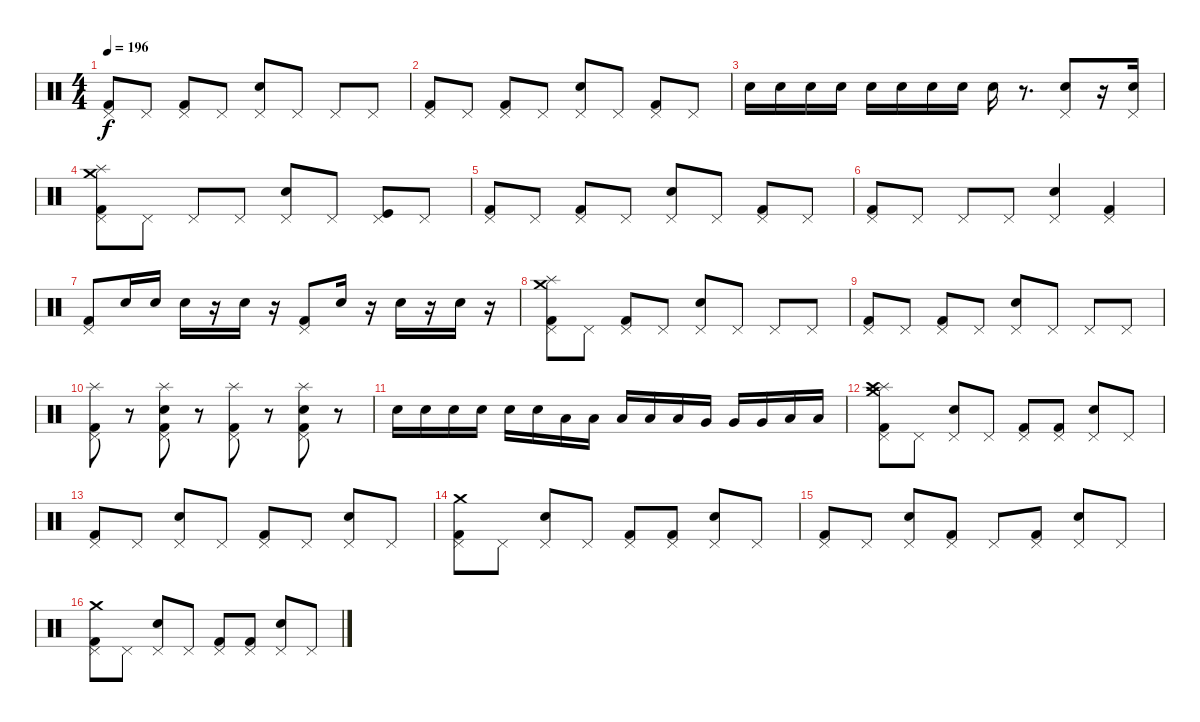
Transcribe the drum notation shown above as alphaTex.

\track "" {instrument percussion}
\staff {score}
\articulation defaults
\ts (4 4)
\tempo 196
\clef neutral
\ks c
("Pedal Hi-Hat (hit)" "Kick (hit) 2").8{dy f} "Pedal Hi-Hat (hit)".8 ("Pedal Hi-Hat (hit)" "Kick (hit) 2").8 "Pedal Hi-Hat (hit)".8 ("Pedal Hi-Hat (hit)" "Electric Snare (hit)").8 "Pedal Hi-Hat (hit)".8 "Pedal Hi-Hat (hit)".8 "Pedal Hi-Hat (hit)".8 |
("Pedal Hi-Hat (hit)" "Kick (hit) 2").8 "Pedal Hi-Hat (hit)".8 ("Pedal Hi-Hat (hit)" "Kick (hit) 2").8 "Pedal Hi-Hat (hit)".8 ("Pedal Hi-Hat (hit)" "Electric Snare (hit)").8 "Pedal Hi-Hat (hit)".8 ("Pedal Hi-Hat (hit)" "Kick (hit) 2").8 "Pedal Hi-Hat (hit)".8 |
"Electric Snare (hit)".16 "Electric Snare (hit)".16 "Electric Snare (hit)".16 "Electric Snare (hit)".16 "Electric Snare (hit)".16 "Electric Snare (hit)".16 "Electric Snare (hit)".16 "Electric Snare (hit)".16 "Electric Snare (hit)".16 r.8{d} ("Pedal Hi-Hat (hit)" "Electric Snare (hit)").8 r.16 ("Pedal Hi-Hat (hit)" "Electric Snare (hit)").16 |
("Pedal Hi-Hat (hit)" "Splash (hit)" "Crash medium (hit)" "Kick (hit) 2").8 "Pedal Hi-Hat (hit)".8 "Pedal Hi-Hat (hit)".8 "Pedal Hi-Hat (hit)".8 ("Pedal Hi-Hat (hit)" "Electric Snare (hit)").8 "Pedal Hi-Hat (hit)".8 ("Pedal Hi-Hat (hit)" "Kick (hit)").8 "Pedal Hi-Hat (hit)".8 |
("Pedal Hi-Hat (hit)" "Kick (hit) 2").8 "Pedal Hi-Hat (hit)".8 ("Pedal Hi-Hat (hit)" "Kick (hit) 2").8 "Pedal Hi-Hat (hit)".8 ("Pedal Hi-Hat (hit)" "Electric Snare (hit)").8 "Pedal Hi-Hat (hit)".8 ("Pedal Hi-Hat (hit)" "Kick (hit) 2").8 "Pedal Hi-Hat (hit)".8 |
("Pedal Hi-Hat (hit)" "Kick (hit) 2").8 "Pedal Hi-Hat (hit)".8 "Pedal Hi-Hat (hit)".8 "Pedal Hi-Hat (hit)".8 ("Pedal Hi-Hat (hit)" "Electric Snare (hit)").4 ("Pedal Hi-Hat (hit)" "Kick (hit) 2").4 |
("Pedal Hi-Hat (hit)" "Kick (hit) 2").8 "Electric Snare (hit)".16 "Electric Snare (hit)".16 "Electric Snare (hit)".16 r.16 "Electric Snare (hit)".16 r.16 ("Pedal Hi-Hat (hit)" "Kick (hit) 2").8 "Electric Snare (hit)".16 r.16 "Electric Snare (hit)".16 r.16 "Electric Snare (hit)".16 r.16 |
("Splash (hit)" "Crash medium (hit)" "Pedal Hi-Hat (hit)" "Kick (hit) 2").8 "Pedal Hi-Hat (hit)".8 ("Pedal Hi-Hat (hit)" "Kick (hit) 2").8 "Pedal Hi-Hat (hit)".8 ("Pedal Hi-Hat (hit)" "Electric Snare (hit)").8 "Pedal Hi-Hat (hit)".8 "Pedal Hi-Hat (hit)".8 "Pedal Hi-Hat (hit)".8 |
("Pedal Hi-Hat (hit)" "Kick (hit) 2").8 "Pedal Hi-Hat (hit)".8 ("Pedal Hi-Hat (hit)" "Kick (hit) 2").8 "Pedal Hi-Hat (hit)".8 ("Pedal Hi-Hat (hit)" "Electric Snare (hit)").8 "Pedal Hi-Hat (hit)".8 "Pedal Hi-Hat (hit)".8 "Pedal Hi-Hat (hit)".8 |
("Pedal Hi-Hat (hit)" "Splash (hit)" "Kick (hit) 2").8 r.8 ("Pedal Hi-Hat (hit)" "Splash (hit)" "Kick (hit) 2" "Electric Snare (hit)").8 r.8 ("Pedal Hi-Hat (hit)" "Splash (hit)" "Kick (hit) 2").8 r.8 ("Pedal Hi-Hat (hit)" "Splash (hit)" "Kick (hit) 2" "Electric Snare (hit)").8 r.8 |
"Electric Snare (hit)".16 "Electric Snare (hit)".16 "Electric Snare (hit)".16 "Electric Snare (hit)".16 "Electric Snare (hit)".16 "Electric Snare (hit)".16 "Low Tom (hit)".16 "Low Tom (hit)".16 "Low Tom (hit)".16 "Low Tom (hit)".16 "Low Tom (hit)".16 "Very Low Tom (hit)".16 "Very Low Tom (hit)".16 "Very Low Tom (hit)".16 "Low Floor Tom (hit)".16 "Low Floor Tom (hit)".16 |
("Pedal Hi-Hat (hit)" "Splash (hit)" "Crash medium (hit)" "Crash high (hit)" "Kick (hit) 2").8 "Pedal Hi-Hat (hit)".8 ("Electric Snare (hit)" "Pedal Hi-Hat (hit)").8 "Pedal Hi-Hat (hit)".8 ("Kick (hit) 2" "Pedal Hi-Hat (hit)").8 ("Kick (hit) 2" "Pedal Hi-Hat (hit)").8 ("Electric Snare (hit)" "Pedal Hi-Hat (hit)").8 "Pedal Hi-Hat (hit)".8 |
("Pedal Hi-Hat (hit)" "Kick (hit) 2").8 "Pedal Hi-Hat (hit)".8 ("Electric Snare (hit)" "Pedal Hi-Hat (hit)").8 "Pedal Hi-Hat (hit)".8 ("Kick (hit) 2" "Pedal Hi-Hat (hit)").8 "Pedal Hi-Hat (hit)".8 ("Pedal Hi-Hat (hit)" "Electric Snare (hit)").8 "Pedal Hi-Hat (hit)".8 |
("Crash medium (hit)" "Pedal Hi-Hat (hit)" "Kick (hit) 2").8 "Pedal Hi-Hat (hit)".8 ("Electric Snare (hit)" "Pedal Hi-Hat (hit)").8 "Pedal Hi-Hat (hit)".8 ("Kick (hit) 2" "Pedal Hi-Hat (hit)").8 ("Kick (hit) 2" "Pedal Hi-Hat (hit)").8 ("Pedal Hi-Hat (hit)" "Electric Snare (hit)").8 "Pedal Hi-Hat (hit)".8 |
("Pedal Hi-Hat (hit)" "Kick (hit) 2").8 "Pedal Hi-Hat (hit)".8 ("Electric Snare (hit)" "Pedal Hi-Hat (hit)").8 ("Kick (hit) 2" "Pedal Hi-Hat (hit)").8 "Pedal Hi-Hat (hit)".8 ("Kick (hit) 2" "Pedal Hi-Hat (hit)").8 ("Pedal Hi-Hat (hit)" "Electric Snare (hit)").8 "Pedal Hi-Hat (hit)".8 |
("Crash medium (hit)" "Pedal Hi-Hat (hit)" "Kick (hit) 2").8 "Pedal Hi-Hat (hit)".8 ("Electric Snare (hit)" "Pedal Hi-Hat (hit)").8 "Pedal Hi-Hat (hit)".8 ("Kick (hit) 2" "Pedal Hi-Hat (hit)").8 ("Kick (hit) 2" "Pedal Hi-Hat (hit)").8 ("Pedal Hi-Hat (hit)" "Electric Snare (hit)").8 "Pedal Hi-Hat (hit)".8
